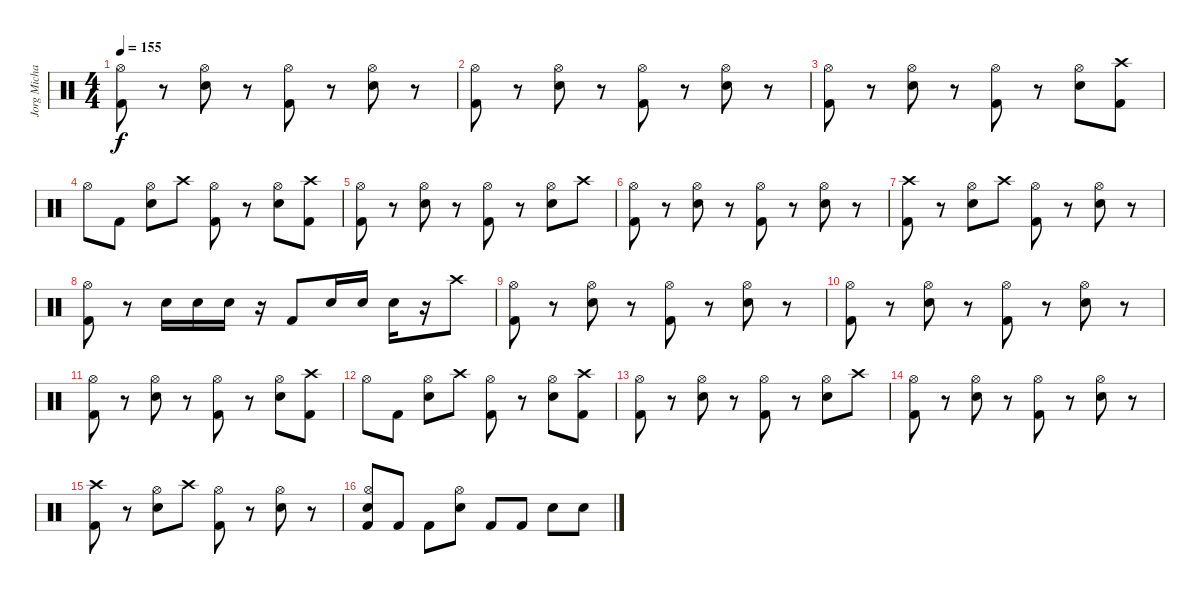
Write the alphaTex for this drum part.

\track ("Jorg Michael - Batteria" "Jorg Micha") {instrument percussion}
\staff {score}
\articulation defaults
\ts (4 4)
\tempo 155
\clef neutral
\ks c
("Kick (hit) 2" "Hi-Hat (open)").8{dy f} r.8 ("Snare (hit) 2" "Hi-Hat (open)").8 r.8 ("Kick (hit) 2" "Hi-Hat (open)").8 r.8 ("Snare (hit) 2" "Hi-Hat (open)").8 r.8 |
("Kick (hit) 2" "Hi-Hat (open)").8 r.8 ("Snare (hit) 2" "Hi-Hat (open)").8 r.8 ("Kick (hit) 2" "Hi-Hat (open)").8 r.8 ("Snare (hit) 2" "Hi-Hat (open)").8 r.8 |
("Kick (hit) 2" "Hi-Hat (open)").8 r.8 ("Snare (hit) 2" "Hi-Hat (open)").8 r.8 ("Kick (hit) 2" "Hi-Hat (open)").8 r.8 ("Snare (hit) 2" "Hi-Hat (open)").8 ("Kick (hit) 2" "Crash high (hit)").8 |
"Hi-Hat (open)".8 "Kick (hit) 2".8 ("Snare (hit) 2" "Hi-Hat (open)").8 "Crash high (hit)".8 ("Kick (hit) 2" "Hi-Hat (open)").8 r.8 ("Snare (hit) 2" "Hi-Hat (open)").8 ("Kick (hit) 2" "Crash high (hit)").8 |
("Kick (hit) 2" "Hi-Hat (open)").8 r.8 ("Snare (hit) 2" "Hi-Hat (open)").8 r.8 ("Kick (hit) 2" "Hi-Hat (open)").8 r.8 ("Snare (hit) 2" "Hi-Hat (open)").8 "Crash high (hit)".8 |
("Kick (hit) 2" "Hi-Hat (open)").8 r.8 ("Snare (hit) 2" "Hi-Hat (open)").8 r.8 ("Kick (hit) 2" "Hi-Hat (open)").8 r.8 ("Snare (hit) 2" "Hi-Hat (open)").8 r.8 |
("Kick (hit) 2" "Crash high (hit)").8 r.8 ("Snare (hit) 2" "Hi-Hat (open)").8 "Crash high (hit)".8 ("Kick (hit) 2" "Hi-Hat (open)").8 r.8 ("Snare (hit) 2" "Hi-Hat (open)").8 r.8 |
("Kick (hit) 2" "Hi-Hat (open)").8 r.8 "Snare (hit) 2".16 "Snare (hit) 2".16 "Snare (hit) 2".16 r.16 "Kick (hit) 2".8 "Snare (hit) 2".16 "Snare (hit) 2".16 "Snare (hit) 2".16 r.16 "Crash high (hit)".8 |
("Kick (hit) 2" "Hi-Hat (open)").8 r.8 ("Snare (hit) 2" "Hi-Hat (open)").8 r.8 ("Kick (hit) 2" "Hi-Hat (open)").8 r.8 ("Snare (hit) 2" "Hi-Hat (open)").8 r.8 |
("Kick (hit) 2" "Hi-Hat (open)").8 r.8 ("Snare (hit) 2" "Hi-Hat (open)").8 r.8 ("Kick (hit) 2" "Hi-Hat (open)").8 r.8 ("Snare (hit) 2" "Hi-Hat (open)").8 r.8 |
("Kick (hit) 2" "Hi-Hat (open)").8 r.8 ("Snare (hit) 2" "Hi-Hat (open)").8 r.8 ("Kick (hit) 2" "Hi-Hat (open)").8 r.8 ("Snare (hit) 2" "Hi-Hat (open)").8 ("Kick (hit) 2" "Crash high (hit)").8 |
"Hi-Hat (open)".8 "Kick (hit) 2".8 ("Snare (hit) 2" "Hi-Hat (open)").8 "Crash high (hit)".8 ("Kick (hit) 2" "Hi-Hat (open)").8 r.8 ("Snare (hit) 2" "Hi-Hat (open)").8 ("Kick (hit) 2" "Crash high (hit)").8 |
("Kick (hit) 2" "Hi-Hat (open)").8 r.8 ("Snare (hit) 2" "Hi-Hat (open)").8 r.8 ("Kick (hit) 2" "Hi-Hat (open)").8 r.8 ("Snare (hit) 2" "Hi-Hat (open)").8 "Crash high (hit)".8 |
("Kick (hit) 2" "Hi-Hat (open)").8 r.8 ("Snare (hit) 2" "Hi-Hat (open)").8 r.8 ("Kick (hit) 2" "Hi-Hat (open)").8 r.8 ("Snare (hit) 2" "Hi-Hat (open)").8 r.8 |
("Kick (hit) 2" "Crash high (hit)").8 r.8 ("Snare (hit) 2" "Hi-Hat (open)").8 "Crash high (hit)".8 ("Kick (hit) 2" "Hi-Hat (open)").8 r.8 ("Snare (hit) 2" "Hi-Hat (open)").8 r.8 |
("Kick (hit) 2" "Snare (hit) 2" "Hi-Hat (open)").8 "Kick (hit) 2".8 "Kick (hit) 2".8 ("Snare (hit) 2" "Hi-Hat (open)").8 "Kick (hit) 2".8 "Kick (hit) 2".8 "Snare (hit) 2".8 "Snare (hit) 2".8
